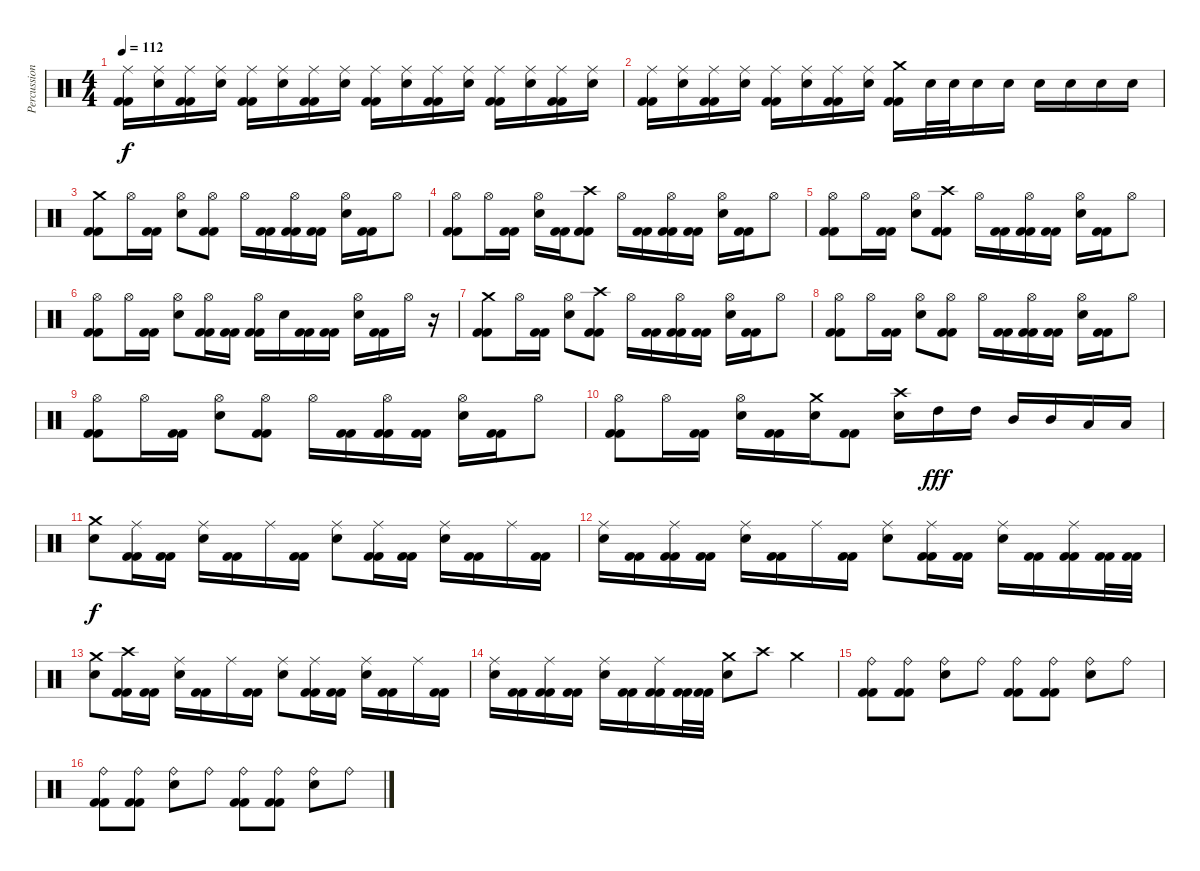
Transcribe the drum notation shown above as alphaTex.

\track ("Percussion" "Percussion") {instrument percussion}
\staff {score}
\articulation defaults
\ts (4 4)
\tempo 112
\clef neutral
\ks c
("Kick (hit) 2" "Kick (hit) 2" "Ride (middle)").16{dy f} ("Ride (middle)" "Electric Snare (hit)").16 ("Ride (middle)" "Kick (hit) 2" "Kick (hit) 2").16 ("Ride (middle)" "Electric Snare (hit)").16 ("Ride (middle)" "Kick (hit) 2" "Kick (hit) 2").16 ("Ride (middle)" "Electric Snare (hit)").16 ("Ride (middle)" "Kick (hit) 2" "Kick (hit) 2").16 ("Ride (middle)" "Electric Snare (hit)").16 ("Ride (middle)" "Kick (hit) 2" "Kick (hit) 2").16 ("Ride (middle)" "Electric Snare (hit)").16 ("Ride (middle)" "Kick (hit) 2" "Kick (hit) 2").16 ("Ride (middle)" "Electric Snare (hit)").16 ("Ride (middle)" "Kick (hit) 2" "Kick (hit) 2").16 ("Ride (middle)" "Electric Snare (hit)").16 ("Ride (middle)" "Kick (hit) 2" "Kick (hit) 2").16 ("Ride (middle)" "Electric Snare (hit)").16 |
("Kick (hit) 2" "Kick (hit) 2" "Ride (middle)").16 ("Ride (middle)" "Electric Snare (hit)").16 ("Ride (middle)" "Kick (hit) 2" "Kick (hit) 2").16 ("Ride (middle)" "Electric Snare (hit)").16 ("Ride (middle)" "Kick (hit) 2" "Kick (hit) 2").16 ("Ride (middle)" "Electric Snare (hit)").16 ("Ride (middle)" "Kick (hit) 2" "Kick (hit) 2").16 ("Ride (middle)" "Electric Snare (hit)").16 ("Crash medium (hit)" "Kick (hit) 2" "Kick (hit) 2").16 "Electric Snare (hit)".32 "Electric Snare (hit)".32 "Electric Snare (hit)".16 "Electric Snare (hit)".16 "Electric Snare (hit)".16 "Electric Snare (hit)".16 "Electric Snare (hit)".16 "Electric Snare (hit)".16 |
("Kick (hit) 2" "Kick (hit) 2" "Crash medium (hit)").8 "Hi-Hat (open)".16 ("Kick (hit) 2" "Kick (hit) 2").16 ("Hi-Hat (open)" "Electric Snare (hit)").8 ("Kick (hit) 2" "Kick (hit) 2" "Hi-Hat (open)").8 "Hi-Hat (open)".16 ("Kick (hit) 2" "Kick (hit) 2").16 ("Kick (hit) 2" "Kick (hit) 2" "Hi-Hat (open)").16 ("Kick (hit) 2" "Kick (hit) 2").16 ("Hi-Hat (open)" "Electric Snare (hit)").16 ("Kick (hit) 2" "Kick (hit) 2").16 "Hi-Hat (open)".8 |
("Kick (hit) 2" "Kick (hit) 2" "Hi-Hat (open)").8 "Hi-Hat (open)".16 ("Kick (hit) 2" "Kick (hit) 2").16 ("Hi-Hat (open)" "Electric Snare (hit)").16 ("Kick (hit) 2" "Kick (hit) 2").16 ("Kick (hit) 2" "Kick (hit) 2" "Crash high (hit)").8 "Hi-Hat (open)".16 ("Kick (hit) 2" "Kick (hit) 2").16 ("Kick (hit) 2" "Kick (hit) 2" "Hi-Hat (open)").16 ("Kick (hit) 2" "Kick (hit) 2").16 ("Hi-Hat (open)" "Electric Snare (hit)").16 ("Kick (hit) 2" "Kick (hit) 2").16 "Hi-Hat (open)".8 |
("Kick (hit) 2" "Kick (hit) 2" "Hi-Hat (open)").8 "Hi-Hat (open)".16 ("Kick (hit) 2" "Kick (hit) 2").16 ("Hi-Hat (open)" "Electric Snare (hit)").8 ("Kick (hit) 2" "Kick (hit) 2" "Crash high (hit)").8 "Hi-Hat (open)".16 ("Kick (hit) 2" "Kick (hit) 2").16 ("Kick (hit) 2" "Kick (hit) 2" "Hi-Hat (open)").16 ("Kick (hit) 2" "Kick (hit) 2").16 ("Hi-Hat (open)" "Electric Snare (hit)").16 ("Kick (hit) 2" "Kick (hit) 2").16 "Hi-Hat (open)".8 |
("Kick (hit) 2" "Kick (hit) 2" "Hi-Hat (open)").8 "Hi-Hat (open)".16 ("Kick (hit) 2" "Kick (hit) 2").16 ("Hi-Hat (open)" "Electric Snare (hit)").8 ("Kick (hit) 2" "Kick (hit) 2" "Hi-Hat (open)").16 ("Kick (hit) 2" "Kick (hit) 2").16 ("Kick (hit) 2" "Kick (hit) 2" "Hi-Hat (open)").16 "Electric Snare (hit)".16 ("Kick (hit) 2" "Kick (hit) 2").16 ("Kick (hit) 2" "Kick (hit) 2").16 ("Electric Snare (hit)" "Hi-Hat (open)").16 ("Kick (hit) 2" "Kick (hit) 2").16 "Hi-Hat (open)".16 r.16 |
("Kick (hit) 2" "Kick (hit) 2" "Crash medium (hit)").8 "Hi-Hat (open)".16 ("Kick (hit) 2" "Kick (hit) 2").16 ("Hi-Hat (open)" "Electric Snare (hit)").8 ("Kick (hit) 2" "Kick (hit) 2" "Crash high (hit)").8 "Hi-Hat (open)".16 ("Kick (hit) 2" "Kick (hit) 2").16 ("Kick (hit) 2" "Kick (hit) 2" "Hi-Hat (open)").16 ("Kick (hit) 2" "Kick (hit) 2").16 ("Hi-Hat (open)" "Electric Snare (hit)").16 ("Kick (hit) 2" "Kick (hit) 2").16 "Hi-Hat (open)".8 |
("Kick (hit) 2" "Kick (hit) 2" "Hi-Hat (open)").8 "Hi-Hat (open)".16 ("Kick (hit) 2" "Kick (hit) 2").16 ("Hi-Hat (open)" "Electric Snare (hit)").8 ("Kick (hit) 2" "Kick (hit) 2" "Hi-Hat (open)").8 "Hi-Hat (open)".16 ("Kick (hit) 2" "Kick (hit) 2").16 ("Kick (hit) 2" "Kick (hit) 2" "Hi-Hat (open)").16 ("Kick (hit) 2" "Kick (hit) 2").16 ("Hi-Hat (open)" "Electric Snare (hit)").16 ("Kick (hit) 2" "Kick (hit) 2").16 "Hi-Hat (open)".8 |
("Kick (hit) 2" "Kick (hit) 2" "Hi-Hat (open)").8 "Hi-Hat (open)".16 ("Kick (hit) 2" "Kick (hit) 2").16 ("Hi-Hat (open)" "Electric Snare (hit)").8 ("Kick (hit) 2" "Kick (hit) 2" "Hi-Hat (open)").8 "Hi-Hat (open)".16 ("Kick (hit) 2" "Kick (hit) 2").16 ("Kick (hit) 2" "Kick (hit) 2" "Hi-Hat (open)").16 ("Kick (hit) 2" "Kick (hit) 2").16 ("Hi-Hat (open)" "Electric Snare (hit)").16 ("Kick (hit) 2" "Kick (hit) 2").16 "Hi-Hat (open)".8 |
("Kick (hit) 2" "Kick (hit) 2" "Hi-Hat (open)").8 "Hi-Hat (open)".16 ("Kick (hit) 2" "Kick (hit) 2").16 ("Hi-Hat (open)" "Electric Snare (hit)").16 ("Kick (hit) 2" "Kick (hit) 2").16 ("Electric Snare (hit)" "Crash medium (hit)").16 ("Kick (hit) 2" "Kick (hit) 2").8 ("Electric Snare (hit)" "Crash high (hit)").16 "High Tom (hit)".16{dy fff} "High Tom (hit)".16 "Mid Tom (hit)".16 "Mid Tom (hit)".16 "Low Tom (hit)".16 "Low Tom (hit)".16 |
("Electric Snare (hit)" "Crash medium (hit)").8{dy f} ("Ride (middle)" "Kick (hit) 2" "Kick (hit) 2").16 ("Kick (hit) 2" "Kick (hit) 2").16 ("Ride (middle)" "Electric Snare (hit)").16 ("Kick (hit) 2" "Kick (hit) 2").16 "Ride (middle)".16 ("Kick (hit) 2" "Kick (hit) 2").16 ("Ride (middle)" "Electric Snare (hit)").8 ("Ride (middle)" "Kick (hit) 2" "Kick (hit) 2").16 ("Kick (hit) 2" "Kick (hit) 2").16 ("Ride (middle)" "Electric Snare (hit)").16 ("Kick (hit) 2" "Kick (hit) 2").16 "Ride (middle)".16 ("Kick (hit) 2" "Kick (hit) 2").16 |
("Ride (middle)" "Electric Snare (hit)").16 ("Kick (hit) 2" "Kick (hit) 2").16 ("Ride (middle)" "Kick (hit) 2" "Kick (hit) 2").16 ("Kick (hit) 2" "Kick (hit) 2").16 ("Ride (middle)" "Electric Snare (hit)").16 ("Kick (hit) 2" "Kick (hit) 2").16 "Ride (middle)".16 ("Kick (hit) 2" "Kick (hit) 2").16 ("Ride (middle)" "Electric Snare (hit)").8 ("Ride (middle)" "Kick (hit) 2" "Kick (hit) 2").16 ("Kick (hit) 2" "Kick (hit) 2").16 ("Ride (middle)" "Electric Snare (hit)").16 ("Kick (hit) 2" "Kick (hit) 2").16 ("Ride (middle)" "Kick (hit) 2" "Kick (hit) 2").16 ("Kick (hit) 2" "Kick (hit) 2").32 ("Kick (hit) 2" "Kick (hit) 2").32 |
("Electric Snare (hit)" "Crash medium (hit)").8 ("Crash high (hit)" "Kick (hit) 2" "Kick (hit) 2").16 ("Kick (hit) 2" "Kick (hit) 2").16 ("Ride (middle)" "Electric Snare (hit)").16 ("Kick (hit) 2" "Kick (hit) 2").16 "Ride (middle)".16 ("Kick (hit) 2" "Kick (hit) 2").16 ("Ride (middle)" "Electric Snare (hit)").8 ("Ride (middle)" "Kick (hit) 2" "Kick (hit) 2").16 ("Kick (hit) 2" "Kick (hit) 2").16 ("Ride (middle)" "Electric Snare (hit)").16 ("Kick (hit) 2" "Kick (hit) 2").16 "Ride (middle)".16 ("Kick (hit) 2" "Kick (hit) 2").16 |
("Ride (middle)" "Electric Snare (hit)").16 ("Kick (hit) 2" "Kick (hit) 2").16 ("Ride (middle)" "Kick (hit) 2" "Kick (hit) 2").16 ("Kick (hit) 2" "Kick (hit) 2").16 ("Ride (middle)" "Electric Snare (hit)").16 ("Kick (hit) 2" "Kick (hit) 2").16 ("Ride (middle)" "Kick (hit) 2" "Kick (hit) 2").16 ("Kick (hit) 2" "Kick (hit) 2").32 ("Kick (hit) 2" "Kick (hit) 2").32 ("Electric Snare (hit)" "Crash medium (hit)").8 "Crash high (hit)".8 "Crash medium (hit)".4 |
("Kick (hit) 2" "Kick (hit) 2" "Ride (bell)").8 ("Kick (hit) 2" "Kick (hit) 2" "Ride (bell)").8 ("Electric Snare (hit)" "Ride (bell)").8 "Ride (bell)".8 ("Kick (hit) 2" "Kick (hit) 2" "Ride (bell)").8 ("Kick (hit) 2" "Kick (hit) 2" "Ride (bell)").8 ("Electric Snare (hit)" "Ride (bell)").8 "Ride (bell)".8 |
("Kick (hit) 2" "Kick (hit) 2" "Ride (bell)").8 ("Kick (hit) 2" "Kick (hit) 2" "Ride (bell)").8 ("Electric Snare (hit)" "Ride (bell)").8 "Ride (bell)".8 ("Kick (hit) 2" "Kick (hit) 2" "Ride (bell)").8 ("Kick (hit) 2" "Kick (hit) 2" "Ride (bell)").8 ("Electric Snare (hit)" "Ride (bell)").8 "Ride (bell)".8
